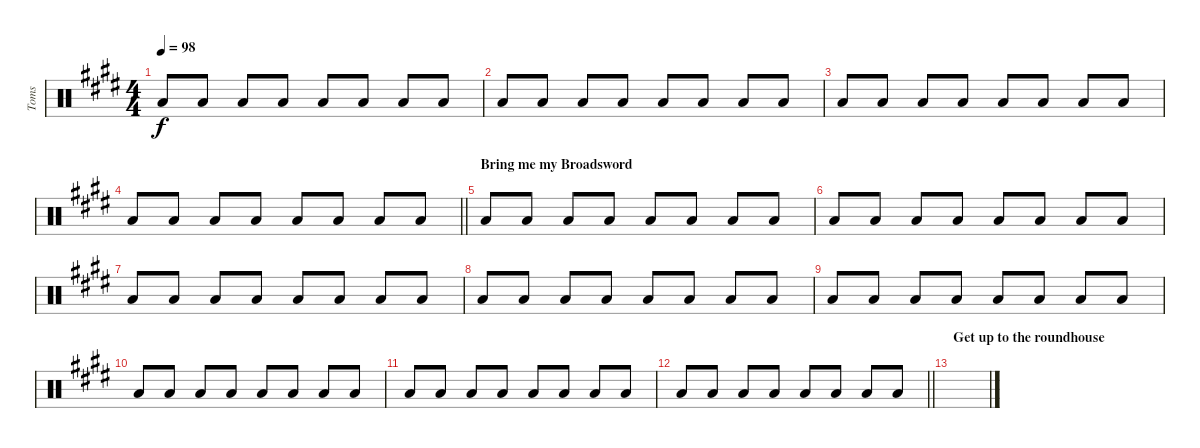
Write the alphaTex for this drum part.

\track ("Toms" "Toms") {instrument percussion}
\staff {score}
\articulation defaults
\ts (4 4)
\tempo 98
\clef neutral
\ks c#minor "Low Tom (hit)".8{dy f} "Low Floor Tom (hit)".8 "Low Floor Tom (hit)".8 "Low Floor Tom (hit)".8 "Low Tom (hit)".8 "Low Floor Tom (hit)".8 "Low Floor Tom (hit)".8 "Low Floor Tom (hit)".8
|
"Low Tom (hit)".8 "Low Floor Tom (hit)".8 "Low Floor Tom (hit)".8 "Low Floor Tom (hit)".8 "Low Tom (hit)".8 "Low Floor Tom (hit)".8 "Low Floor Tom (hit)".8 "Low Floor Tom (hit)".8 |
"Low Tom (hit)".8 "Low Floor Tom (hit)".8 "Low Floor Tom (hit)".8 "Low Floor Tom (hit)".8 "Low Tom (hit)".8 "Low Floor Tom (hit)".8 "Low Floor Tom (hit)".8 "Low Floor Tom (hit)".8 |
\barLineRight lightlight "Low Tom (hit)".8 "Low Floor Tom (hit)".8 "Low Floor Tom (hit)".8 "Low Floor Tom (hit)".8 "Low Tom (hit)".8 "Low Floor Tom (hit)".8 "Low Floor Tom (hit)".8 "Low Floor Tom (hit)".8
|
\section ("" "Bring me my Broadsword")
"Low Tom (hit)".8 "Low Floor Tom (hit)".8 "Low Floor Tom (hit)".8 "Low Floor Tom (hit)".8 "Low Tom (hit)".8 "Low Floor Tom (hit)".8 "Low Floor Tom (hit)".8 "Low Floor Tom (hit)".8 |
"Low Tom (hit)".8 "Low Floor Tom (hit)".8 "Low Floor Tom (hit)".8 "Low Floor Tom (hit)".8 "Low Tom (hit)".8 "Low Floor Tom (hit)".8 "Low Floor Tom (hit)".8 "Low Floor Tom (hit)".8 |
"Low Tom (hit)".8 "Low Floor Tom (hit)".8 "Low Floor Tom (hit)".8 "Low Floor Tom (hit)".8 "Low Tom (hit)".8 "Low Floor Tom (hit)".8 "Low Floor Tom (hit)".8 "Low Floor Tom (hit)".8 |
"Low Tom (hit)".8 "Low Floor Tom (hit)".8 "Low Floor Tom (hit)".8 "Low Floor Tom (hit)".8 "Low Tom (hit)".8 "Low Floor Tom (hit)".8 "Low Floor Tom (hit)".8 "Low Floor Tom (hit)".8 |
"Low Tom (hit)".8 "Low Floor Tom (hit)".8 "Low Floor Tom (hit)".8 "Low Floor Tom (hit)".8 "Low Tom (hit)".8 "Low Floor Tom (hit)".8 "Low Floor Tom (hit)".8 "Low Floor Tom (hit)".8 |
"Low Tom (hit)".8 "Low Floor Tom (hit)".8 "Low Floor Tom (hit)".8 "Low Floor Tom (hit)".8 "Low Tom (hit)".8 "Low Floor Tom (hit)".8 "Low Floor Tom (hit)".8 "Low Floor Tom (hit)".8 |
"Low Tom (hit)".8 "Low Floor Tom (hit)".8 "Low Floor Tom (hit)".8 "Low Floor Tom (hit)".8 "Low Tom (hit)".8 "Low Floor Tom (hit)".8 "Low Floor Tom (hit)".8 "Low Floor Tom (hit)".8 |
\barLineRight lightlight "Low Tom (hit)".8 "Low Floor Tom (hit)".8 "Low Floor Tom (hit)".8 "Low Floor Tom (hit)".8 "Low Tom (hit)".8 "Low Floor Tom (hit)".8 "Low Floor Tom (hit)".8 "Low Floor Tom (hit)".8
|
\section ("" "Get up to the roundhouse")
